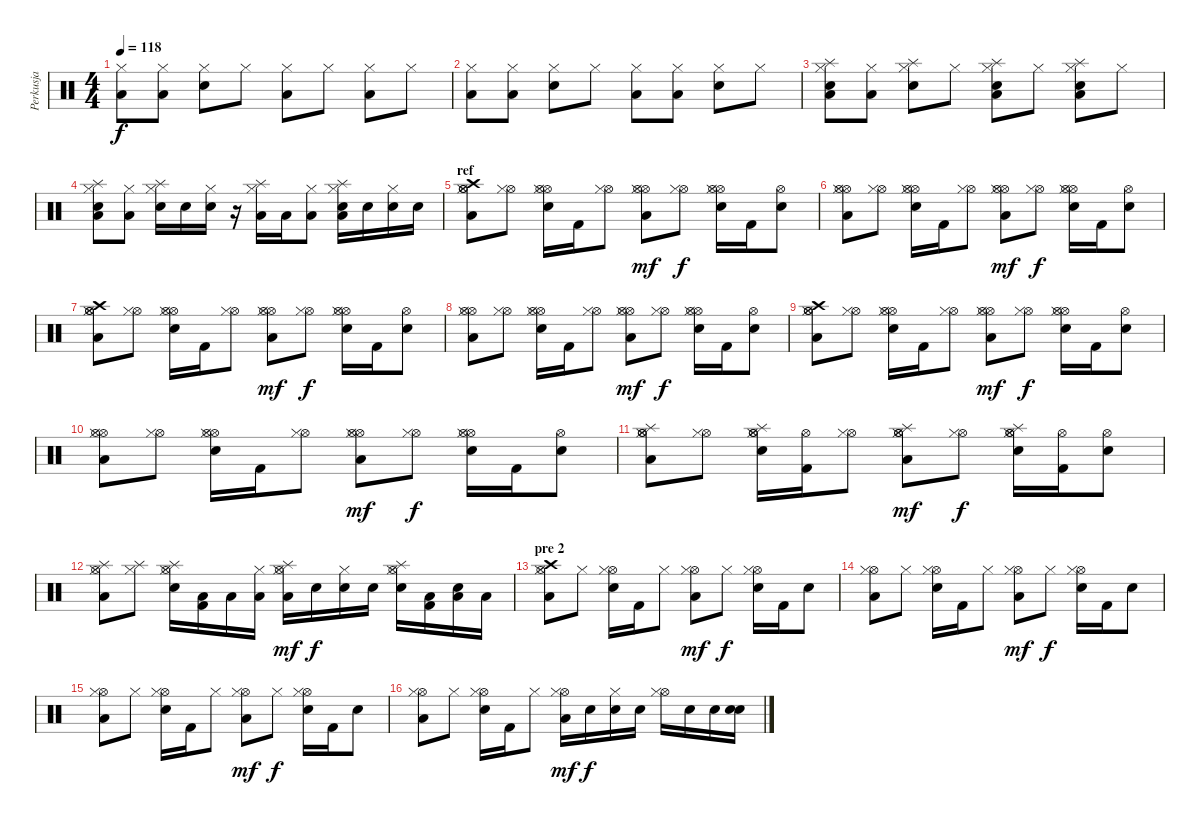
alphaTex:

\track ("Perkusja" "Perkusja") {instrument percussion}
\staff {score}
\articulation defaults
\ts (4 4)
\tempo 118
\clef neutral
\ks c
("Hi-Hat (closed)" "Low Tom (hit)").8{dy f} ("Hi-Hat (closed)" "Low Tom (hit)").8 ("Hi-Hat (closed)" "Electric Snare (hit)").8 "Hi-Hat (closed)".8 ("Hi-Hat (closed)" "Low Tom (hit)").8 "Hi-Hat (closed)".8 ("Hi-Hat (closed)" "Low Tom (hit)").8 "Hi-Hat (closed)".8 |
("Hi-Hat (closed)" "Low Tom (hit)").8 ("Hi-Hat (closed)" "Low Tom (hit)").8 ("Hi-Hat (closed)" "Electric Snare (hit)").8 "Hi-Hat (closed)".8 ("Hi-Hat (closed)" "Low Tom (hit)").8 ("Hi-Hat (closed)" "Low Tom (hit)").8 ("Hi-Hat (closed)" "Electric Snare (hit)").8 "Hi-Hat (closed)".8 |
("Hi-Hat (closed)" "Low Tom (hit)" "Electric Snare (hit)" "Splash (hit)").8 ("Hi-Hat (closed)" "Low Tom (hit)").8 ("Hi-Hat (closed)" "Electric Snare (hit)" "Splash (hit)").8 "Hi-Hat (closed)".8 ("Hi-Hat (closed)" "Low Tom (hit)" "Electric Snare (hit)" "Splash (hit)").8 "Hi-Hat (closed)".8 ("Hi-Hat (closed)" "Low Tom (hit)" "Electric Snare (hit)" "Splash (hit)").8 "Hi-Hat (closed)".8 |
("Hi-Hat (closed)" "Low Tom (hit)" "Electric Snare (hit)" "Splash (hit)").8 ("Hi-Hat (closed)" "Low Tom (hit)").8 ("Hi-Hat (closed)" "Electric Snare (hit)" "Splash (hit)").16 "Electric Snare (hit)".16 ("Hi-Hat (closed)" "Electric Snare (hit)").16 r.16 ("Hi-Hat (closed)" "Low Tom (hit)" "Splash (hit)").16 "Low Tom (hit)".16 ("Hi-Hat (closed)" "Low Tom (hit)").8 ("Hi-Hat (closed)" "Low Tom (hit)" "Electric Snare (hit)" "Splash (hit)").16 "Electric Snare (hit)".16 ("Hi-Hat (closed)" "Electric Snare (hit)").16 "Electric Snare (hit)".16 |
\section ("" "ref")
("Crash high (hit)" "Hi-Hat (open)" "Low Tom (hit)" "Hi-Hat (open)" "Hi-Hat (closed)").8 ("Hi-Hat (open)" "Hi-Hat (closed)").8 ("Hi-Hat (open)" "Electric Snare (hit)" "Hi-Hat (open)" "Hi-Hat (closed)").16 "Kick (hit) 2".16 ("Hi-Hat (open)" "Hi-Hat (closed)").8 ("Hi-Hat (open)" "Low Tom (hit)" "Hi-Hat (open)" "Hi-Hat (closed)").8{dy mf} ("Hi-Hat (open)" "Hi-Hat (closed)").8{dy f} ("Hi-Hat (open)" "Electric Snare (hit)" "Hi-Hat (open)" "Hi-Hat (closed)").16 "Kick (hit) 2".16 ("Hi-Hat (open)" "Snare (hit)").8 |
("Hi-Hat (open)" "Low Tom (hit)" "Hi-Hat (open)" "Hi-Hat (closed)").8 ("Hi-Hat (open)" "Hi-Hat (closed)").8 ("Hi-Hat (open)" "Electric Snare (hit)" "Hi-Hat (open)" "Hi-Hat (closed)").16 "Kick (hit) 2".16 ("Hi-Hat (open)" "Hi-Hat (closed)").8 ("Hi-Hat (open)" "Low Tom (hit)" "Hi-Hat (open)" "Hi-Hat (closed)").8{dy mf} ("Hi-Hat (open)" "Hi-Hat (closed)").8{dy f} ("Hi-Hat (open)" "Electric Snare (hit)" "Hi-Hat (open)" "Hi-Hat (closed)").16 "Kick (hit) 2".16 ("Hi-Hat (open)" "Snare (hit)").8 |
("Crash high (hit)" "Hi-Hat (open)" "Low Tom (hit)" "Hi-Hat (open)" "Hi-Hat (closed)").8 ("Hi-Hat (open)" "Hi-Hat (closed)").8 ("Hi-Hat (open)" "Electric Snare (hit)" "Hi-Hat (open)" "Hi-Hat (closed)").16 "Kick (hit) 2".16 ("Hi-Hat (open)" "Hi-Hat (closed)").8 ("Hi-Hat (open)" "Low Tom (hit)" "Hi-Hat (open)" "Hi-Hat (closed)").8{dy mf} ("Hi-Hat (open)" "Hi-Hat (closed)").8{dy f} ("Hi-Hat (open)" "Electric Snare (hit)" "Hi-Hat (open)" "Hi-Hat (closed)").16 "Kick (hit) 2".16 ("Hi-Hat (open)" "Snare (hit)").8 |
("Hi-Hat (open)" "Low Tom (hit)" "Hi-Hat (open)" "Hi-Hat (closed)").8 ("Hi-Hat (open)" "Hi-Hat (closed)").8 ("Hi-Hat (open)" "Electric Snare (hit)" "Hi-Hat (open)" "Hi-Hat (closed)").16 "Kick (hit) 2".16 ("Hi-Hat (open)" "Hi-Hat (closed)").8 ("Hi-Hat (open)" "Low Tom (hit)" "Hi-Hat (open)" "Hi-Hat (closed)").8{dy mf} ("Hi-Hat (open)" "Hi-Hat (closed)").8{dy f} ("Hi-Hat (open)" "Electric Snare (hit)" "Hi-Hat (open)" "Hi-Hat (closed)").16 "Kick (hit) 2".16 ("Hi-Hat (open)" "Snare (hit)").8 |
("Crash high (hit)" "Hi-Hat (open)" "Low Tom (hit)" "Hi-Hat (open)" "Hi-Hat (closed)").8 ("Hi-Hat (open)" "Hi-Hat (closed)").8 ("Hi-Hat (open)" "Electric Snare (hit)" "Hi-Hat (open)" "Hi-Hat (closed)").16 "Kick (hit) 2".16 ("Hi-Hat (open)" "Hi-Hat (closed)").8 ("Hi-Hat (open)" "Low Tom (hit)" "Hi-Hat (open)" "Hi-Hat (closed)").8{dy mf} ("Hi-Hat (open)" "Hi-Hat (closed)").8{dy f} ("Hi-Hat (open)" "Electric Snare (hit)" "Hi-Hat (open)" "Hi-Hat (closed)").16 "Kick (hit) 2".16 ("Hi-Hat (open)" "Snare (hit)").8 |
("Hi-Hat (open)" "Low Tom (hit)" "Hi-Hat (open)" "Hi-Hat (closed)").8 ("Hi-Hat (open)" "Hi-Hat (closed)").8 ("Hi-Hat (open)" "Electric Snare (hit)" "Hi-Hat (open)" "Hi-Hat (closed)").16 "Kick (hit) 2".16 ("Hi-Hat (open)" "Hi-Hat (closed)").8 ("Hi-Hat (open)" "Low Tom (hit)" "Hi-Hat (open)" "Hi-Hat (closed)").8{dy mf} ("Hi-Hat (open)" "Hi-Hat (closed)").8{dy f} ("Hi-Hat (open)" "Electric Snare (hit)" "Hi-Hat (open)" "Hi-Hat (closed)").16 "Kick (hit) 2".16 ("Hi-Hat (open)" "Snare (hit)").8 |
("Splash (hit)" "Hi-Hat (open)" "Low Tom (hit)" "Hi-Hat (open)" "Hi-Hat (closed)").8 ("Hi-Hat (open)" "Hi-Hat (closed)").8 ("Splash (hit)" "Hi-Hat (open)" "Electric Snare (hit)" "Hi-Hat (open)" "Hi-Hat (closed)").16 ("Hi-Hat (open)" "Kick (hit) 2").16 ("Hi-Hat (open)" "Hi-Hat (closed)").8 ("Splash (hit)" "Hi-Hat (open)" "Low Tom (hit)" "Hi-Hat (open)" "Hi-Hat (closed)").8{dy mf} ("Hi-Hat (open)" "Hi-Hat (closed)").8{dy f} ("Splash (hit)" "Hi-Hat (open)" "Electric Snare (hit)" "Hi-Hat (open)" "Hi-Hat (closed)").16 ("Hi-Hat (open)" "Kick (hit) 2").16 ("Hi-Hat (open)" "Snare (hit)").8 |
("Splash (hit)" "Low Tom (hit)" "Hi-Hat (open)" "Hi-Hat (closed)").8 ("Splash (hit)" "Hi-Hat (closed)").8 ("Splash (hit)" "Electric Snare (hit)" "Hi-Hat (open)" "Hi-Hat (closed)").16 ("Low Tom (hit)" "Kick (hit) 2").16 "Low Tom (hit)".16 ("Low Tom (hit)" "Hi-Hat (closed)").16 ("Splash (hit)" "Low Tom (hit)" "Hi-Hat (open)" "Hi-Hat (closed)").16{dy mf} "Electric Snare (hit)".16{dy f} ("Electric Snare (hit)" "Hi-Hat (closed)").16 "Electric Snare (hit)".16 ("Splash (hit)" "Electric Snare (hit)" "Hi-Hat (open)" "Hi-Hat (closed)").16 ("Low Tom (hit)" "Kick (hit) 2").16 ("Low Tom (hit)" "Snare (hit)").16 "Low Tom (hit)".16 |
\section ("" "pre 2")
("Crash high (hit)" "Low Tom (hit)" "Hi-Hat (open)" "Hi-Hat (closed)").8 "Hi-Hat (closed)".8 ("Electric Snare (hit)" "Hi-Hat (open)" "Hi-Hat (closed)").16 "Kick (hit) 2".16 "Hi-Hat (closed)".8 ("Low Tom (hit)" "Hi-Hat (open)" "Hi-Hat (closed)").8{dy mf} "Hi-Hat (closed)".8{dy f} ("Electric Snare (hit)" "Hi-Hat (open)" "Hi-Hat (closed)").16 "Kick (hit) 2".16 "Snare (hit)".8 |
("Low Tom (hit)" "Hi-Hat (open)" "Hi-Hat (closed)").8 "Hi-Hat (closed)".8 ("Electric Snare (hit)" "Hi-Hat (open)" "Hi-Hat (closed)").16 "Kick (hit) 2".16 "Hi-Hat (closed)".8 ("Low Tom (hit)" "Hi-Hat (open)" "Hi-Hat (closed)").8{dy mf} "Hi-Hat (closed)".8{dy f} ("Electric Snare (hit)" "Hi-Hat (open)" "Hi-Hat (closed)").16 "Kick (hit) 2".16 "Snare (hit)".8 |
("Low Tom (hit)" "Hi-Hat (open)" "Hi-Hat (closed)").8 "Hi-Hat (closed)".8 ("Electric Snare (hit)" "Hi-Hat (open)" "Hi-Hat (closed)").16 "Kick (hit) 2".16 "Hi-Hat (closed)".8 ("Low Tom (hit)" "Hi-Hat (open)" "Hi-Hat (closed)").8{dy mf} "Hi-Hat (closed)".8{dy f} ("Electric Snare (hit)" "Hi-Hat (open)" "Hi-Hat (closed)").16 "Kick (hit) 2".16 "Snare (hit)".8 |
("Low Tom (hit)" "Hi-Hat (open)" "Hi-Hat (closed)").8 "Hi-Hat (closed)".8 ("Electric Snare (hit)" "Hi-Hat (open)" "Hi-Hat (closed)").16 "Kick (hit) 2".16 "Hi-Hat (closed)".8 ("Low Tom (hit)" "Hi-Hat (open)" "Hi-Hat (closed)").16{dy mf} "Electric Snare (hit)".16{dy f} ("Electric Snare (hit)" "Hi-Hat (closed)").16 "Electric Snare (hit)".16 ("Hi-Hat (open)" "Hi-Hat (closed)").16 "Electric Snare (hit)".16 "Electric Snare (hit)".16 ("Electric Snare (hit)" "Snare (hit)").16
